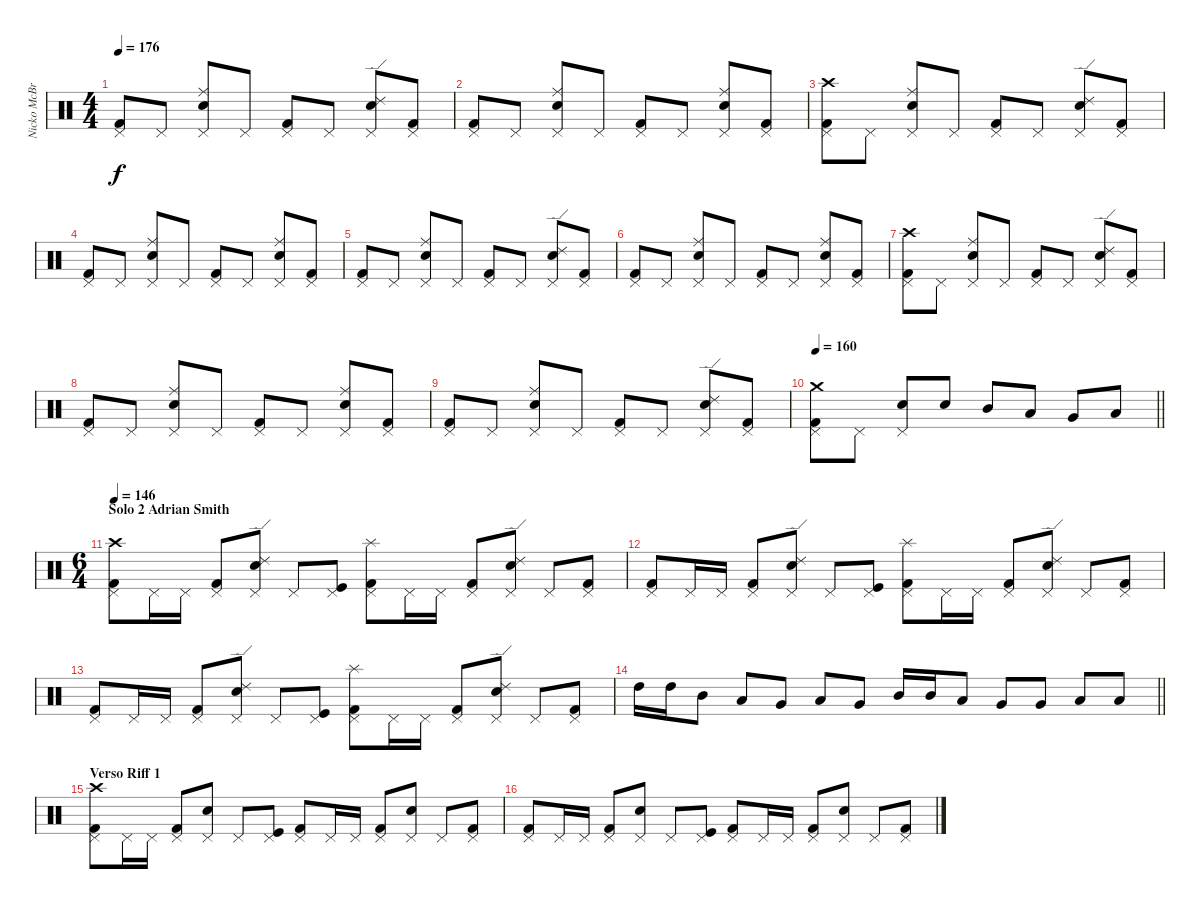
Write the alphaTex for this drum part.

\track ("Nicko McBrain" "Nicko McBr") {instrument percussion}
\staff {score}
\articulation defaults
\ts (4 4)
\tempo 176
\clef neutral
\ks c
("Kick (hit) 2" "Pedal Hi-Hat (hit)").8{dy f} "Pedal Hi-Hat (hit)".8 ("Snare (hit) 2" "Pedal Hi-Hat (hit)" "Ride (middle)").8 "Pedal Hi-Hat (hit)".8 ("Kick (hit) 2" "Pedal Hi-Hat (hit)").8 "Pedal Hi-Hat (hit)".8 ("Snare (hit) 2" "Pedal Hi-Hat (hit)" "Ride (edge) 2").8 ("Kick (hit) 2" "Pedal Hi-Hat (hit)").8 |
("Kick (hit) 2" "Pedal Hi-Hat (hit)").8 "Pedal Hi-Hat (hit)".8 ("Snare (hit) 2" "Pedal Hi-Hat (hit)" "Ride (middle)").8 "Pedal Hi-Hat (hit)".8 ("Kick (hit) 2" "Pedal Hi-Hat (hit)").8 "Pedal Hi-Hat (hit)".8 ("Snare (hit) 2" "Pedal Hi-Hat (hit)" "Ride (middle)").8 ("Kick (hit) 2" "Pedal Hi-Hat (hit)").8 |
("Kick (hit) 2" "Pedal Hi-Hat (hit)" "Crash high (hit)").8 "Pedal Hi-Hat (hit)".8 ("Snare (hit) 2" "Pedal Hi-Hat (hit)" "Ride (middle)").8 "Pedal Hi-Hat (hit)".8 ("Kick (hit) 2" "Pedal Hi-Hat (hit)").8 "Pedal Hi-Hat (hit)".8 ("Snare (hit) 2" "Pedal Hi-Hat (hit)" "Ride (edge) 2").8 ("Kick (hit) 2" "Pedal Hi-Hat (hit)").8 |
("Kick (hit) 2" "Pedal Hi-Hat (hit)").8 "Pedal Hi-Hat (hit)".8 ("Snare (hit) 2" "Pedal Hi-Hat (hit)" "Ride (middle)").8 "Pedal Hi-Hat (hit)".8 ("Kick (hit) 2" "Pedal Hi-Hat (hit)").8 "Pedal Hi-Hat (hit)".8 ("Snare (hit) 2" "Pedal Hi-Hat (hit)" "Ride (middle)").8 ("Kick (hit) 2" "Pedal Hi-Hat (hit)").8 |
("Kick (hit) 2" "Pedal Hi-Hat (hit)").8 "Pedal Hi-Hat (hit)".8 ("Snare (hit) 2" "Pedal Hi-Hat (hit)" "Ride (middle)").8 "Pedal Hi-Hat (hit)".8 ("Kick (hit) 2" "Pedal Hi-Hat (hit)").8 "Pedal Hi-Hat (hit)".8 ("Snare (hit) 2" "Pedal Hi-Hat (hit)" "Ride (edge) 2").8 ("Kick (hit) 2" "Pedal Hi-Hat (hit)").8 |
("Kick (hit) 2" "Pedal Hi-Hat (hit)").8 "Pedal Hi-Hat (hit)".8 ("Snare (hit) 2" "Pedal Hi-Hat (hit)" "Ride (middle)").8 "Pedal Hi-Hat (hit)".8 ("Kick (hit) 2" "Pedal Hi-Hat (hit)").8 "Pedal Hi-Hat (hit)".8 ("Snare (hit) 2" "Pedal Hi-Hat (hit)" "Ride (middle)").8 ("Kick (hit) 2" "Pedal Hi-Hat (hit)").8 |
("Kick (hit) 2" "Pedal Hi-Hat (hit)" "Crash high (hit)").8 "Pedal Hi-Hat (hit)".8 ("Snare (hit) 2" "Pedal Hi-Hat (hit)" "Ride (middle)").8 "Pedal Hi-Hat (hit)".8 ("Kick (hit) 2" "Pedal Hi-Hat (hit)").8 "Pedal Hi-Hat (hit)".8 ("Snare (hit) 2" "Pedal Hi-Hat (hit)" "Ride (edge) 2").8 ("Kick (hit) 2" "Pedal Hi-Hat (hit)").8 |
("Kick (hit) 2" "Pedal Hi-Hat (hit)").8 "Pedal Hi-Hat (hit)".8 ("Snare (hit) 2" "Pedal Hi-Hat (hit)" "Ride (middle)").8 "Pedal Hi-Hat (hit)".8 ("Kick (hit) 2" "Pedal Hi-Hat (hit)").8 "Pedal Hi-Hat (hit)".8 ("Snare (hit) 2" "Pedal Hi-Hat (hit)" "Ride (middle)").8 ("Kick (hit) 2" "Pedal Hi-Hat (hit)").8 |
("Kick (hit) 2" "Pedal Hi-Hat (hit)").8 "Pedal Hi-Hat (hit)".8 ("Snare (hit) 2" "Pedal Hi-Hat (hit)" "Ride (middle)").8 "Pedal Hi-Hat (hit)".8 ("Kick (hit) 2" "Pedal Hi-Hat (hit)").8 "Pedal Hi-Hat (hit)".8 ("Snare (hit) 2" "Pedal Hi-Hat (hit)" "Ride (edge) 2").8 ("Kick (hit) 2" "Pedal Hi-Hat (hit)").8 |
\tempo 160
\barLineRight lightlight
("Kick (hit) 2" "Pedal Hi-Hat (hit)" "Crash medium (hit)").8 "Pedal Hi-Hat (hit)".8 ("Snare (hit) 2" "Pedal Hi-Hat (hit)").8 "Snare (hit) 2".8 "Mid Tom (hit)".8 "Low Tom (hit)".8 "Very Low Tom (hit)".8 "Low Floor Tom (hit)".8 |
\ts (6 4)
\section ("" "Solo 2 Adrian Smith")
\tempo 146
("Kick (hit) 2" "Pedal Hi-Hat (hit)" "Crash high (hit)").8 "Pedal Hi-Hat (hit)".16 "Pedal Hi-Hat (hit)".16 ("Kick (hit) 2" "Pedal Hi-Hat (hit)").8 ("Snare (hit) 2" "Pedal Hi-Hat (hit)" "Ride (edge) 2").8 "Pedal Hi-Hat (hit)".8 ("Kick (hit)" "Pedal Hi-Hat (hit)").8 ("Kick (hit) 2" "Pedal Hi-Hat (hit)" "Splash (hit)").8 "Pedal Hi-Hat (hit)".16 "Pedal Hi-Hat (hit)".16 ("Kick (hit) 2" "Pedal Hi-Hat (hit)").8 ("Snare (hit) 2" "Pedal Hi-Hat (hit)" "Ride (edge) 2").8 "Pedal Hi-Hat (hit)".8 ("Kick (hit) 2" "Pedal Hi-Hat (hit)").8 |
("Kick (hit) 2" "Pedal Hi-Hat (hit)").8 "Pedal Hi-Hat (hit)".16 "Pedal Hi-Hat (hit)".16 ("Kick (hit) 2" "Pedal Hi-Hat (hit)").8 ("Snare (hit) 2" "Pedal Hi-Hat (hit)" "Ride (edge) 2").8 "Pedal Hi-Hat (hit)".8 ("Kick (hit)" "Pedal Hi-Hat (hit)").8 ("Kick (hit) 2" "Pedal Hi-Hat (hit)" "Splash (hit)").8 "Pedal Hi-Hat (hit)".16 "Pedal Hi-Hat (hit)".16 ("Kick (hit) 2" "Pedal Hi-Hat (hit)").8 ("Snare (hit) 2" "Pedal Hi-Hat (hit)" "Ride (edge) 2").8 "Pedal Hi-Hat (hit)".8 ("Kick (hit) 2" "Pedal Hi-Hat (hit)").8 |
("Kick (hit) 2" "Pedal Hi-Hat (hit)").8 "Pedal Hi-Hat (hit)".16 "Pedal Hi-Hat (hit)".16 ("Kick (hit) 2" "Pedal Hi-Hat (hit)").8 ("Snare (hit) 2" "Pedal Hi-Hat (hit)" "Ride (edge) 2").8 "Pedal Hi-Hat (hit)".8 ("Kick (hit)" "Pedal Hi-Hat (hit)").8 ("Kick (hit) 2" "Pedal Hi-Hat (hit)" "Splash (hit)").8 "Pedal Hi-Hat (hit)".16 "Pedal Hi-Hat (hit)".16 ("Kick (hit) 2" "Pedal Hi-Hat (hit)").8 ("Snare (hit) 2" "Pedal Hi-Hat (hit)" "Ride (edge) 2").8 "Pedal Hi-Hat (hit)".8 ("Kick (hit) 2" "Pedal Hi-Hat (hit)").8 |
\barLineRight lightlight "High Tom (hit)".16 "High Tom (hit)".16 "Mid Tom (hit)".8 "Low Tom (hit)".8 "Very Low Tom (hit)".8 "Low Floor Tom (hit)".8 "Very Low Tom (hit)".8 "Mid Tom (hit)".16 "Mid Tom (hit)".16 "Low Tom (hit)".8 "Very Low Tom (hit)".8 "Very Low Tom (hit)".8 "Low Floor Tom (hit)".8 "Low Floor Tom (hit)".8
|
\section ("" "Verso Riff 1")
("Kick (hit) 2" "Pedal Hi-Hat (hit)" "Crash high (hit)").8 "Pedal Hi-Hat (hit)".16 "Pedal Hi-Hat (hit)".16 ("Kick (hit) 2" "Pedal Hi-Hat (hit)").8 ("Snare (hit) 2" "Pedal Hi-Hat (hit)").8 "Pedal Hi-Hat (hit)".8 ("Kick (hit)" "Pedal Hi-Hat (hit)").8 ("Kick (hit) 2" "Pedal Hi-Hat (hit)").8 "Pedal Hi-Hat (hit)".16 "Pedal Hi-Hat (hit)".16 ("Kick (hit) 2" "Pedal Hi-Hat (hit)").8 ("Snare (hit) 2" "Pedal Hi-Hat (hit)").8 "Pedal Hi-Hat (hit)".8 ("Kick (hit) 2" "Pedal Hi-Hat (hit)").8 |
("Kick (hit) 2" "Pedal Hi-Hat (hit)").8 "Pedal Hi-Hat (hit)".16 "Pedal Hi-Hat (hit)".16 ("Kick (hit) 2" "Pedal Hi-Hat (hit)").8 ("Snare (hit) 2" "Pedal Hi-Hat (hit)").8 "Pedal Hi-Hat (hit)".8 ("Kick (hit)" "Pedal Hi-Hat (hit)").8 ("Kick (hit) 2" "Pedal Hi-Hat (hit)").8 "Pedal Hi-Hat (hit)".16 "Pedal Hi-Hat (hit)".16 ("Kick (hit) 2" "Pedal Hi-Hat (hit)").8 ("Snare (hit) 2" "Pedal Hi-Hat (hit)").8 "Pedal Hi-Hat (hit)".8 ("Kick (hit) 2" "Pedal Hi-Hat (hit)").8
